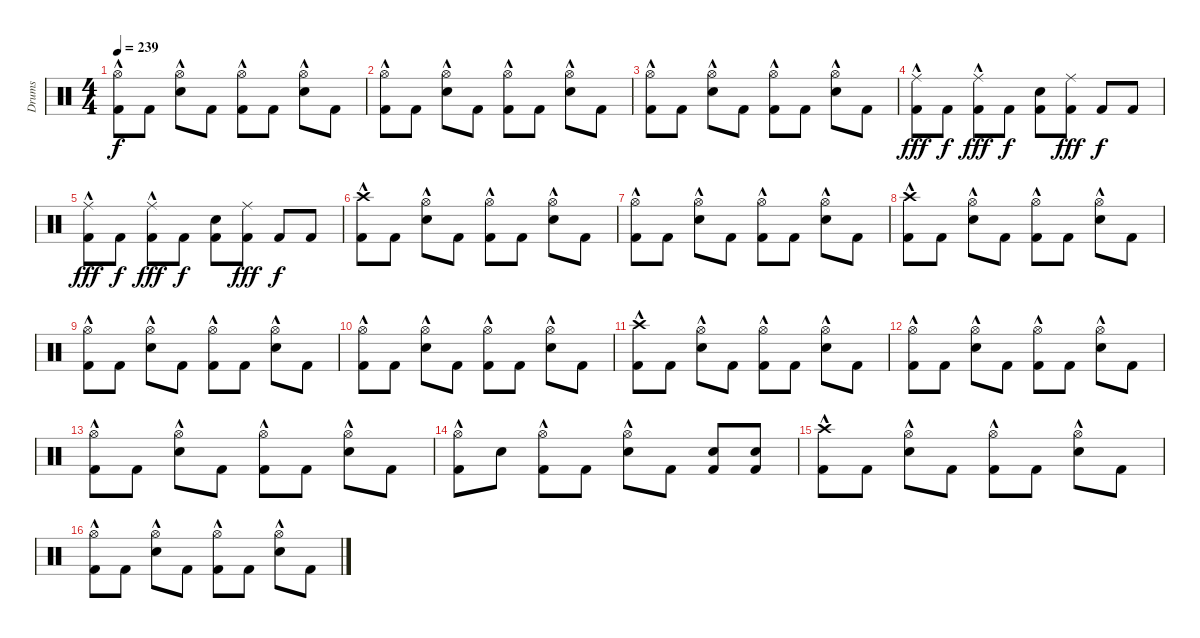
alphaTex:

\track ("Drums" "Drums") {instrument percussion}
\staff {score}
\articulation defaults
\ts (4 4)
\tempo 239
\clef neutral
\ks c
("Hi-Hat (open)"{hac} "Kick (hit) 2").8{dy f} "Kick (hit) 2".8 ("Snare (hit) 2"{hac} "Hi-Hat (open)"{hac}).8 "Kick (hit) 2".8 ("Hi-Hat (open)"{hac} "Kick (hit) 2").8 "Kick (hit) 2".8 ("Snare (hit) 2"{hac} "Hi-Hat (open)"{hac}).8 "Kick (hit) 2".8 |
("Hi-Hat (open)"{hac} "Kick (hit) 2").8 "Kick (hit) 2".8 ("Snare (hit) 2"{hac} "Hi-Hat (open)"{hac}).8 "Kick (hit) 2".8 ("Hi-Hat (open)"{hac} "Kick (hit) 2").8 "Kick (hit) 2".8 ("Snare (hit) 2"{hac} "Hi-Hat (open)"{hac}).8 "Kick (hit) 2".8 |
("Hi-Hat (open)"{hac} "Kick (hit) 2").8 "Kick (hit) 2".8 ("Snare (hit) 2"{hac} "Hi-Hat (open)"{hac}).8 "Kick (hit) 2".8 ("Hi-Hat (open)"{hac} "Kick (hit) 2").8 "Kick (hit) 2".8 ("Snare (hit) 2"{hac} "Hi-Hat (open)"{hac}).8 "Kick (hit) 2".8 |
("Kick (hit) 2" "Ride (middle)"{hac}).8{dy fff} "Kick (hit) 2".8{dy f} ("Kick (hit) 2" "Ride (middle)"{hac}).8{dy fff} "Kick (hit) 2".8{dy f} ("Kick (hit) 2" "Snare (hit) 2").8 ("Kick (hit) 2" "Ride (middle)").8{dy fff} "Kick (hit) 2".8{dy f} "Kick (hit) 2".8 |
("Kick (hit) 2" "Ride (middle)"{hac}).8{dy fff} "Kick (hit) 2".8{dy f} ("Kick (hit) 2" "Ride (middle)"{hac}).8{dy fff} "Kick (hit) 2".8{dy f} ("Kick (hit) 2" "Snare (hit) 2").8 ("Kick (hit) 2" "Ride (middle)").8{dy fff} "Kick (hit) 2".8{dy f} "Kick (hit) 2".8 |
("Crash high (hit)"{hac} "Kick (hit) 2").8 "Kick (hit) 2".8 ("Snare (hit) 2"{hac} "Hi-Hat (open)"{hac}).8 "Kick (hit) 2".8 ("Hi-Hat (open)"{hac} "Kick (hit) 2").8 "Kick (hit) 2".8 ("Snare (hit) 2"{hac} "Hi-Hat (open)"{hac}).8 "Kick (hit) 2".8 |
("Kick (hit) 2" "Hi-Hat (open)"{hac}).8 "Kick (hit) 2".8 ("Snare (hit) 2"{hac} "Hi-Hat (open)"{hac}).8 "Kick (hit) 2".8 ("Hi-Hat (open)"{hac} "Kick (hit) 2").8 "Kick (hit) 2".8 ("Snare (hit) 2"{hac} "Hi-Hat (open)"{hac}).8 "Kick (hit) 2".8 |
("Kick (hit) 2" "Crash high (hit)"{hac}).8 "Kick (hit) 2".8 ("Snare (hit) 2"{hac} "Hi-Hat (open)"{hac}).8 "Kick (hit) 2".8 ("Hi-Hat (open)"{hac} "Kick (hit) 2").8 "Kick (hit) 2".8 ("Snare (hit) 2"{hac} "Hi-Hat (open)"{hac}).8 "Kick (hit) 2".8 |
("Hi-Hat (open)"{hac} "Kick (hit) 2").8 "Kick (hit) 2".8 ("Snare (hit) 2"{hac} "Hi-Hat (open)"{hac}).8 "Kick (hit) 2".8 ("Hi-Hat (open)"{hac} "Kick (hit) 2").8 "Kick (hit) 2".8 ("Snare (hit) 2"{hac} "Hi-Hat (open)"{hac}).8 "Kick (hit) 2".8 |
("Hi-Hat (open)"{hac} "Kick (hit) 2").8 "Kick (hit) 2".8 ("Snare (hit) 2"{hac} "Hi-Hat (open)"{hac}).8 "Kick (hit) 2".8 ("Hi-Hat (open)"{hac} "Kick (hit) 2").8 "Kick (hit) 2".8 ("Snare (hit) 2"{hac} "Hi-Hat (open)"{hac}).8 "Kick (hit) 2".8 |
("Crash high (hit)"{hac} "Kick (hit) 2").8 "Kick (hit) 2".8 ("Snare (hit) 2"{hac} "Hi-Hat (open)"{hac}).8 "Kick (hit) 2".8 ("Hi-Hat (open)"{hac} "Kick (hit) 2").8 "Kick (hit) 2".8 ("Snare (hit) 2"{hac} "Hi-Hat (open)"{hac}).8 "Kick (hit) 2".8 |
("Hi-Hat (open)"{hac} "Kick (hit) 2").8 "Kick (hit) 2".8 ("Snare (hit) 2"{hac} "Hi-Hat (open)"{hac}).8 "Kick (hit) 2".8 ("Hi-Hat (open)"{hac} "Kick (hit) 2").8 "Kick (hit) 2".8 ("Snare (hit) 2"{hac} "Hi-Hat (open)"{hac}).8 "Kick (hit) 2".8 |
("Hi-Hat (open)"{hac} "Kick (hit) 2").8 "Kick (hit) 2".8 ("Snare (hit) 2"{hac} "Hi-Hat (open)"{hac}).8 "Kick (hit) 2".8 ("Hi-Hat (open)"{hac} "Kick (hit) 2").8 "Kick (hit) 2".8 ("Snare (hit) 2"{hac} "Hi-Hat (open)"{hac}).8 "Kick (hit) 2".8 |
("Kick (hit) 2"{hac} "Hi-Hat (open)"{hac}).8 "Snare (hit) 2".8 ("Kick (hit) 2" "Hi-Hat (open)"{hac}).8 "Kick (hit) 2".8 ("Hi-Hat (open)"{hac} "Snare (hit) 2"{hac}).8 "Kick (hit) 2".8 ("Kick (hit) 2" "Snare (hit) 2").8 ("Kick (hit) 2" "Snare (hit) 2").8 |
("Crash high (hit)"{hac} "Kick (hit) 2").8 "Kick (hit) 2".8 ("Snare (hit) 2"{hac} "Hi-Hat (open)"{hac}).8 "Kick (hit) 2".8 ("Hi-Hat (open)"{hac} "Kick (hit) 2").8 "Kick (hit) 2".8 ("Snare (hit) 2"{hac} "Hi-Hat (open)"{hac}).8 "Kick (hit) 2".8 |
("Kick (hit) 2" "Hi-Hat (open)"{hac}).8 "Kick (hit) 2".8 ("Snare (hit) 2"{hac} "Hi-Hat (open)"{hac}).8 "Kick (hit) 2".8 ("Hi-Hat (open)"{hac} "Kick (hit) 2").8 "Kick (hit) 2".8 ("Snare (hit) 2"{hac} "Hi-Hat (open)"{hac}).8 "Kick (hit) 2".8
